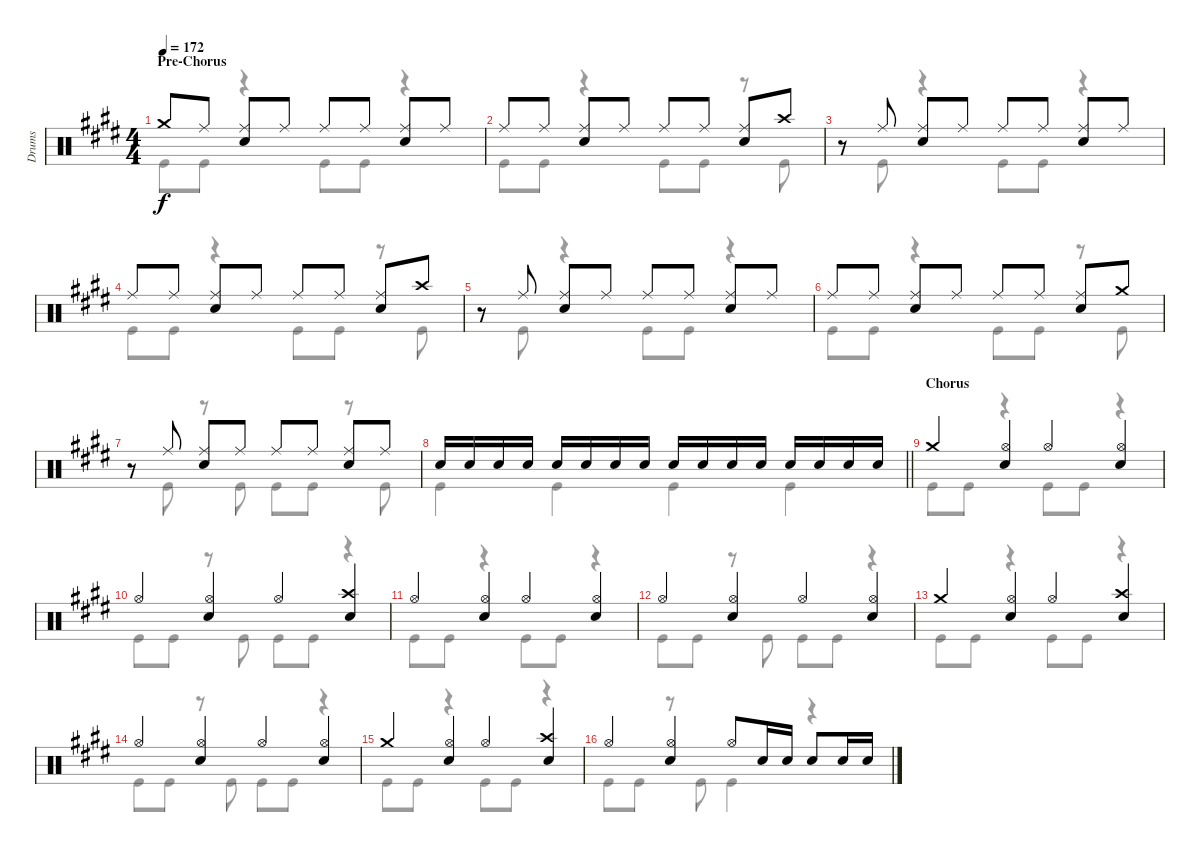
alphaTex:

\track ("Drums" "Drums") {instrument percussion}
\staff {score}
\articulation defaults
\voice
\ts (4 4)
\section ("" "Pre-Chorus")
\tempo 172
\clef neutral
\ks e "Crash medium (hit)".8{dy f} "Ride (middle)".8
("Ride (middle)" "Electric Snare (hit)").8 "Ride (middle)".8 "Ride (middle)".8 "Ride (middle)".8 ("Ride (middle)" "Electric Snare (hit)").8 "Ride (middle)".8 |
"Ride (middle)".8 "Ride (middle)".8 ("Ride (middle)" "Electric Snare (hit)").8 "Ride (middle)".8 "Ride (middle)".8 "Ride (middle)".8 ("Ride (middle)" "Electric Snare (hit)").8 "Crash high (hit)".8 |
r.8 "Ride (middle)".8 ("Ride (middle)" "Electric Snare (hit)").8 "Ride (middle)".8 "Ride (middle)".8 "Ride (middle)".8 ("Ride (middle)" "Electric Snare (hit)").8 "Ride (middle)".8 |
"Ride (middle)".8 "Ride (middle)".8 ("Ride (middle)" "Electric Snare (hit)").8 "Ride (middle)".8 "Ride (middle)".8 "Ride (middle)".8 ("Ride (middle)" "Electric Snare (hit)").8 "Crash high (hit)".8 |
r.8 "Ride (middle)".8 ("Ride (middle)" "Electric Snare (hit)").8 "Ride (middle)".8 "Ride (middle)".8 "Ride (middle)".8 ("Ride (middle)" "Electric Snare (hit)").8 "Ride (middle)".8 |
"Ride (middle)".8 "Ride (middle)".8 ("Ride (middle)" "Electric Snare (hit)").8 "Ride (middle)".8 "Ride (middle)".8 "Ride (middle)".8 ("Ride (middle)" "Electric Snare (hit)").8 "Crash medium (hit)".8 |
r.8 "Ride (middle)".8 ("Ride (middle)" "Electric Snare (hit)").8 "Ride (middle)".8 "Ride (middle)".8 "Ride (middle)".8 ("Ride (middle)" "Electric Snare (hit)").8 "Ride (middle)".8 |
\barLineRight lightlight "Electric Snare (hit)".16 "Electric Snare (hit)".16 "Electric Snare (hit)".16 "Electric Snare (hit)".16 "Electric Snare (hit)".16 "Electric Snare (hit)".16 "Electric Snare (hit)".16 "Electric Snare (hit)".16 "Electric Snare (hit)".16 "Electric Snare (hit)".16 "Electric Snare (hit)".16 "Electric Snare (hit)".16 "Electric Snare (hit)".16 "Electric Snare (hit)".16 "Electric Snare (hit)".16 "Electric Snare (hit)".16
|
\section ("" "Chorus")
"Crash medium (hit)".4 ("Hi-Hat (open)" "Electric Snare (hit)").4 "Hi-Hat (open)".4 ("Hi-Hat (open)" "Electric Snare (hit)").4 |
"Hi-Hat (open)".4 ("Hi-Hat (open)" "Electric Snare (hit)").4 "Hi-Hat (open)".4 ("Crash high (hit)" "Electric Snare (hit)").4 |
"Hi-Hat (open)".4 ("Hi-Hat (open)" "Electric Snare (hit)").4 "Hi-Hat (open)".4 ("Hi-Hat (open)" "Electric Snare (hit)").4 |
"Hi-Hat (open)".4 ("Hi-Hat (open)" "Electric Snare (hit)").4 "Hi-Hat (open)".4 ("Hi-Hat (open)" "Electric Snare (hit)").4 |
"Crash medium (hit)".4 ("Hi-Hat (open)" "Electric Snare (hit)").4 "Hi-Hat (open)".4 ("Crash high (hit)" "Electric Snare (hit)").4 |
"Hi-Hat (open)".4 ("Hi-Hat (open)" "Electric Snare (hit)").4 "Hi-Hat (open)".4 ("Hi-Hat (open)" "Electric Snare (hit)").4 |
"Crash medium (hit)".4 ("Hi-Hat (open)" "Electric Snare (hit)").4 "Hi-Hat (open)".4 ("Crash high (hit)" "Electric Snare (hit)").4 |
"Hi-Hat (open)".4 ("Hi-Hat (open)" "Electric Snare (hit)").4 "Hi-Hat (open)".8 "Electric Snare (hit)".16 "Electric Snare (hit)".16 "Electric Snare (hit)".8 "Electric Snare (hit)".16 "Electric Snare (hit)".16
\voice
\clef neutral
\ottava regular
\simile none
\ks e "Kick (hit)".8{dy f} "Kick (hit)".8
r.4 "Kick (hit)".8 "Kick (hit)".8 r.4 |
"Kick (hit)".8 "Kick (hit)".8 r.4 "Kick (hit)".8 "Kick (hit)".8 r.8 "Kick (hit)".8 |
r.8 "Kick (hit)".8 r.4 "Kick (hit)".8 "Kick (hit)".8 r.4 |
"Kick (hit)".8 "Kick (hit)".8 r.4 "Kick (hit)".8 "Kick (hit)".8 r.8 "Kick (hit)".8 |
r.8 "Kick (hit)".8 r.4 "Kick (hit)".8 "Kick (hit)".8 r.4 |
"Kick (hit)".8 "Kick (hit)".8 r.4 "Kick (hit)".8 "Kick (hit)".8 r.8 "Kick (hit)".8 |
r.8 "Kick (hit)".8 r.8 "Kick (hit)".8 "Kick (hit)".8 "Kick (hit)".8 r.8 "Kick (hit)".8 |
\barLineRight lightlight "Kick (hit)".4 "Kick (hit)".4 "Kick (hit)".4 "Kick (hit)".4
|
"Kick (hit)".8 "Kick (hit)".8 r.4 "Kick (hit)".8 "Kick (hit)".8 r.4 |
"Kick (hit)".8 "Kick (hit)".8 r.8 "Kick (hit)".8 "Kick (hit)".8 "Kick (hit)".8 r.4 |
"Kick (hit)".8 "Kick (hit)".8 r.4 "Kick (hit)".8 "Kick (hit)".8 r.4 |
"Kick (hit)".8 "Kick (hit)".8 r.8 "Kick (hit)".8 "Kick (hit)".8 "Kick (hit)".8 r.4 |
"Kick (hit)".8 "Kick (hit)".8 r.4 "Kick (hit)".8 "Kick (hit)".8 r.4 |
"Kick (hit)".8 "Kick (hit)".8 r.8 "Kick (hit)".8 "Kick (hit)".8 "Kick (hit)".8 r.4 |
"Kick (hit)".8 "Kick (hit)".8 r.4 "Kick (hit)".8 "Kick (hit)".8 r.4 |
"Kick (hit)".8 "Kick (hit)".8 r.8 "Kick (hit)".8 "Kick (hit)".4 r.4
